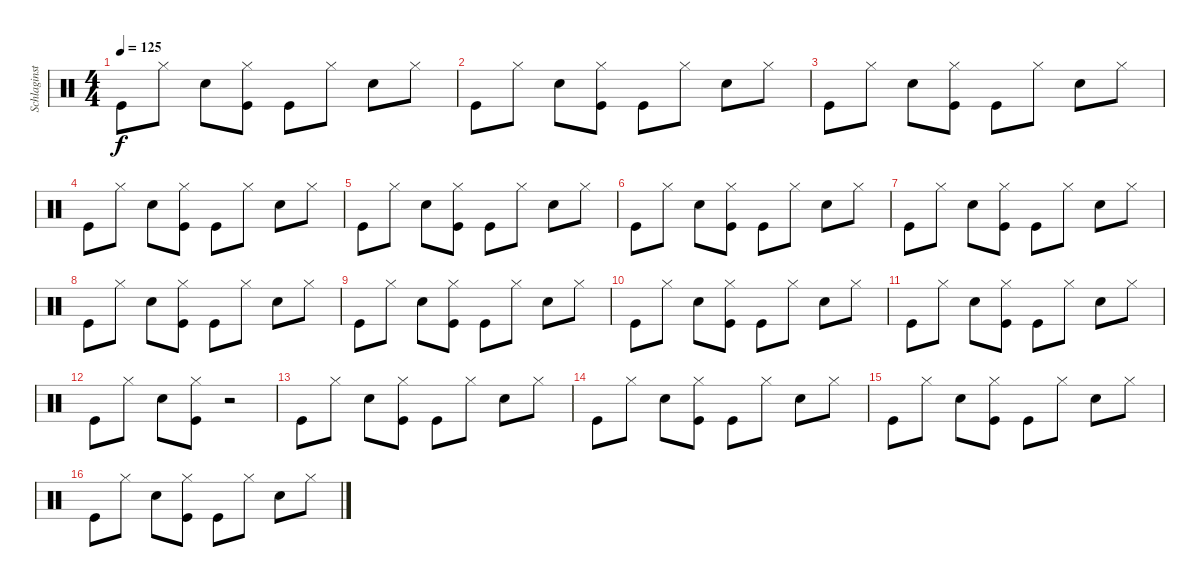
\track ("Schlaginstrumente - Auswahl" "Schlaginst") {instrument percussion}
\staff {score}
\articulation defaults
\ts (4 4)
\tempo 125
\clef neutral
\ks c "Kick (hit)".8{dy f} "Hi-Hat (closed)".8 "Snare (hit) 2".8
("Hi-Hat (closed)" "Kick (hit)").8 "Kick (hit)".8 "Hi-Hat (closed)".8 "Snare (hit) 2".8 "Hi-Hat (closed)".8 |
"Kick (hit)".8 "Hi-Hat (closed)".8 "Snare (hit) 2".8 ("Hi-Hat (closed)" "Kick (hit)").8 "Kick (hit)".8 "Hi-Hat (closed)".8 "Snare (hit) 2".8 "Hi-Hat (closed)".8 |
"Kick (hit)".8 "Hi-Hat (closed)".8 "Snare (hit) 2".8 ("Hi-Hat (closed)" "Kick (hit)").8 "Kick (hit)".8 "Hi-Hat (closed)".8 "Snare (hit) 2".8 "Hi-Hat (closed)".8 |
"Kick (hit)".8 "Hi-Hat (closed)".8 "Snare (hit) 2".8 ("Hi-Hat (closed)" "Kick (hit)").8 "Kick (hit)".8 "Hi-Hat (closed)".8 "Snare (hit) 2".8 "Hi-Hat (closed)".8 |
"Kick (hit)".8 "Hi-Hat (closed)".8 "Snare (hit) 2".8 ("Hi-Hat (closed)" "Kick (hit)").8 "Kick (hit)".8 "Hi-Hat (closed)".8 "Snare (hit) 2".8 "Hi-Hat (closed)".8 |
"Kick (hit)".8 "Hi-Hat (closed)".8 "Snare (hit) 2".8 ("Hi-Hat (closed)" "Kick (hit)").8 "Kick (hit)".8 "Hi-Hat (closed)".8 "Snare (hit) 2".8 "Hi-Hat (closed)".8 |
"Kick (hit)".8 "Hi-Hat (closed)".8 "Snare (hit) 2".8 ("Hi-Hat (closed)" "Kick (hit)").8 "Kick (hit)".8 "Hi-Hat (closed)".8 "Snare (hit) 2".8 "Hi-Hat (closed)".8 |
"Kick (hit)".8 "Hi-Hat (closed)".8 "Snare (hit) 2".8 ("Hi-Hat (closed)" "Kick (hit)").8 "Kick (hit)".8 "Hi-Hat (closed)".8 "Snare (hit) 2".8 "Hi-Hat (closed)".8 |
"Kick (hit)".8 "Hi-Hat (closed)".8 "Snare (hit) 2".8 ("Hi-Hat (closed)" "Kick (hit)").8 "Kick (hit)".8 "Hi-Hat (closed)".8 "Snare (hit) 2".8 "Hi-Hat (closed)".8 |
"Kick (hit)".8 "Hi-Hat (closed)".8 "Snare (hit) 2".8 ("Hi-Hat (closed)" "Kick (hit)").8 "Kick (hit)".8 "Hi-Hat (closed)".8 "Snare (hit) 2".8 "Hi-Hat (closed)".8 |
"Kick (hit)".8 "Hi-Hat (closed)".8 "Snare (hit) 2".8 ("Hi-Hat (closed)" "Kick (hit)").8 "Kick (hit)".8 "Hi-Hat (closed)".8 "Snare (hit) 2".8 "Hi-Hat (closed)".8 |
"Kick (hit)".8 "Hi-Hat (closed)".8 "Snare (hit) 2".8 ("Hi-Hat (closed)" "Kick (hit)").8 r.2 |
"Kick (hit)".8 "Hi-Hat (closed)".8 "Snare (hit) 2".8 ("Hi-Hat (closed)" "Kick (hit)").8 "Kick (hit)".8 "Hi-Hat (closed)".8 "Snare (hit) 2".8 "Hi-Hat (closed)".8 |
"Kick (hit)".8 "Hi-Hat (closed)".8 "Snare (hit) 2".8 ("Hi-Hat (closed)" "Kick (hit)").8 "Kick (hit)".8 "Hi-Hat (closed)".8 "Snare (hit) 2".8 "Hi-Hat (closed)".8 |
"Kick (hit)".8 "Hi-Hat (closed)".8 "Snare (hit) 2".8 ("Hi-Hat (closed)" "Kick (hit)").8 "Kick (hit)".8 "Hi-Hat (closed)".8 "Snare (hit) 2".8 "Hi-Hat (closed)".8 |
"Kick (hit)".8 "Hi-Hat (closed)".8 "Snare (hit) 2".8 ("Hi-Hat (closed)" "Kick (hit)").8 "Kick (hit)".8 "Hi-Hat (closed)".8 "Snare (hit) 2".8 "Hi-Hat (closed)".8
